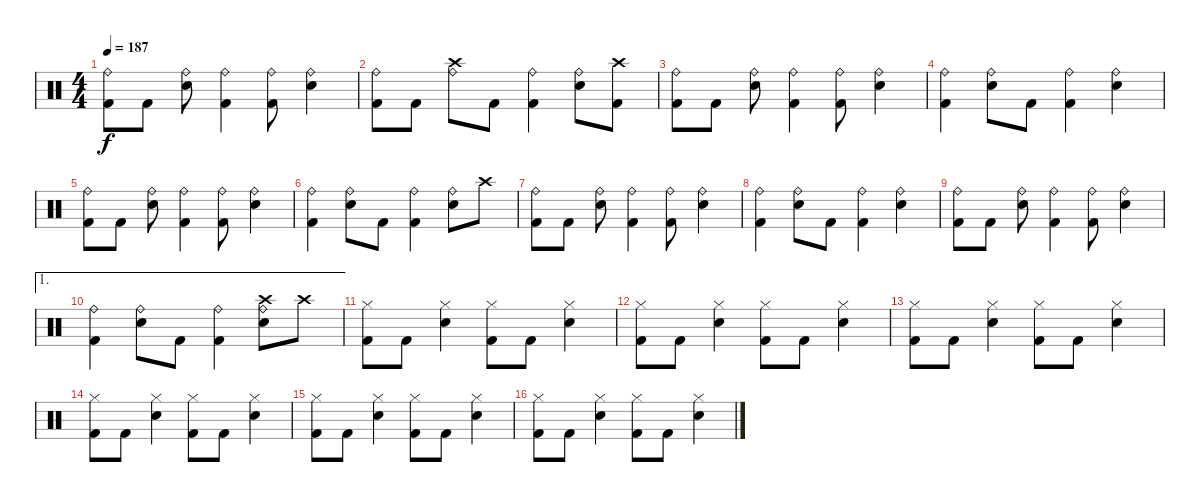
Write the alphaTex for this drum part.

\track "" {instrument percussion}
\staff {score}
\articulation defaults
\ts (4 4)
\tempo 187
\clef neutral
\ks c
("Ride (bell)" "Kick (hit) 2").8{dy f} "Kick (hit) 2".8 ("Ride (bell)" "Electric Snare (hit)").8 ("Ride (bell)" "Kick (hit) 2").4 ("Ride (bell)" "Kick (hit) 2").8 ("Ride (bell)" "Electric Snare (hit)").4 |
("Ride (bell)" "Kick (hit) 2").8 "Kick (hit) 2".8 ("Ride (bell)" "Crash high (hit)").8 "Kick (hit) 2".8 ("Ride (bell)" "Kick (hit) 2").4 ("Ride (bell)" "Electric Snare (hit)").8 ("Crash high (hit)" "Kick (hit) 2").8 |
("Ride (bell)" "Kick (hit) 2").8 "Kick (hit) 2".8 ("Ride (bell)" "Electric Snare (hit)").8 ("Ride (bell)" "Kick (hit) 2").4 ("Ride (bell)" "Kick (hit) 2").8 ("Ride (bell)" "Electric Snare (hit)").4 |
("Ride (bell)" "Kick (hit) 2").4 ("Ride (bell)" "Electric Snare (hit)").8 "Kick (hit) 2".8 ("Ride (bell)" "Kick (hit) 2").4 ("Ride (bell)" "Electric Snare (hit)").4 |
("Ride (bell)" "Kick (hit) 2").8 "Kick (hit) 2".8 ("Ride (bell)" "Electric Snare (hit)").8 ("Ride (bell)" "Kick (hit) 2").4 ("Ride (bell)" "Kick (hit) 2").8 ("Ride (bell)" "Electric Snare (hit)").4 |
("Ride (bell)" "Kick (hit) 2").4 ("Ride (bell)" "Electric Snare (hit)").8 "Kick (hit) 2".8 ("Ride (bell)" "Kick (hit) 2").4 ("Ride (bell)" "Electric Snare (hit)").8 "Crash high (hit)".8 |
("Ride (bell)" "Kick (hit) 2").8 "Kick (hit) 2".8 ("Ride (bell)" "Electric Snare (hit)").8 ("Ride (bell)" "Kick (hit) 2").4 ("Ride (bell)" "Kick (hit) 2").8 ("Ride (bell)" "Electric Snare (hit)").4 |
("Ride (bell)" "Kick (hit) 2").4 ("Ride (bell)" "Electric Snare (hit)").8 "Kick (hit) 2".8 ("Ride (bell)" "Kick (hit) 2").4 ("Ride (bell)" "Electric Snare (hit)").4 |
("Ride (bell)" "Kick (hit) 2").8 "Kick (hit) 2".8 ("Ride (bell)" "Electric Snare (hit)").8 ("Ride (bell)" "Kick (hit) 2").4 ("Ride (bell)" "Kick (hit) 2").8 ("Ride (bell)" "Electric Snare (hit)").4 |
\ae 1
("Ride (bell)" "Kick (hit) 2").4 ("Ride (bell)" "Electric Snare (hit)").8 "Kick (hit) 2".8 ("Ride (bell)" "Kick (hit) 2").4 ("Ride (bell)" "Crash high (hit)" "Electric Snare (hit)").8 "Crash high (hit)".8 |
("Hi-Hat (closed)" "Kick (hit) 2").8 "Kick (hit) 2".8 ("Hi-Hat (closed)" "Electric Snare (hit)").4 ("Hi-Hat (closed)" "Kick (hit) 2").8 "Kick (hit) 2".8 ("Hi-Hat (closed)" "Electric Snare (hit)").4 |
("Hi-Hat (closed)" "Kick (hit) 2").8 "Kick (hit) 2".8 ("Hi-Hat (closed)" "Electric Snare (hit)").4 ("Hi-Hat (closed)" "Kick (hit) 2").8 "Kick (hit) 2".8 ("Hi-Hat (closed)" "Electric Snare (hit)").4 |
("Hi-Hat (closed)" "Kick (hit) 2").8 "Kick (hit) 2".8 ("Hi-Hat (closed)" "Electric Snare (hit)").4 ("Hi-Hat (closed)" "Kick (hit) 2").8 "Kick (hit) 2".8 ("Hi-Hat (closed)" "Electric Snare (hit)").4 |
("Hi-Hat (closed)" "Kick (hit) 2").8 "Kick (hit) 2".8 ("Hi-Hat (closed)" "Electric Snare (hit)").4 ("Hi-Hat (closed)" "Kick (hit) 2").8 "Kick (hit) 2".8 ("Hi-Hat (closed)" "Electric Snare (hit)").4 |
("Hi-Hat (closed)" "Kick (hit) 2").8 "Kick (hit) 2".8 ("Hi-Hat (closed)" "Electric Snare (hit)").4 ("Hi-Hat (closed)" "Kick (hit) 2").8 "Kick (hit) 2".8 ("Hi-Hat (closed)" "Electric Snare (hit)").4 |
("Hi-Hat (closed)" "Kick (hit) 2").8 "Kick (hit) 2".8 ("Hi-Hat (closed)" "Electric Snare (hit)").4 ("Hi-Hat (closed)" "Kick (hit) 2").8 "Kick (hit) 2".8 ("Hi-Hat (closed)" "Electric Snare (hit)").4
